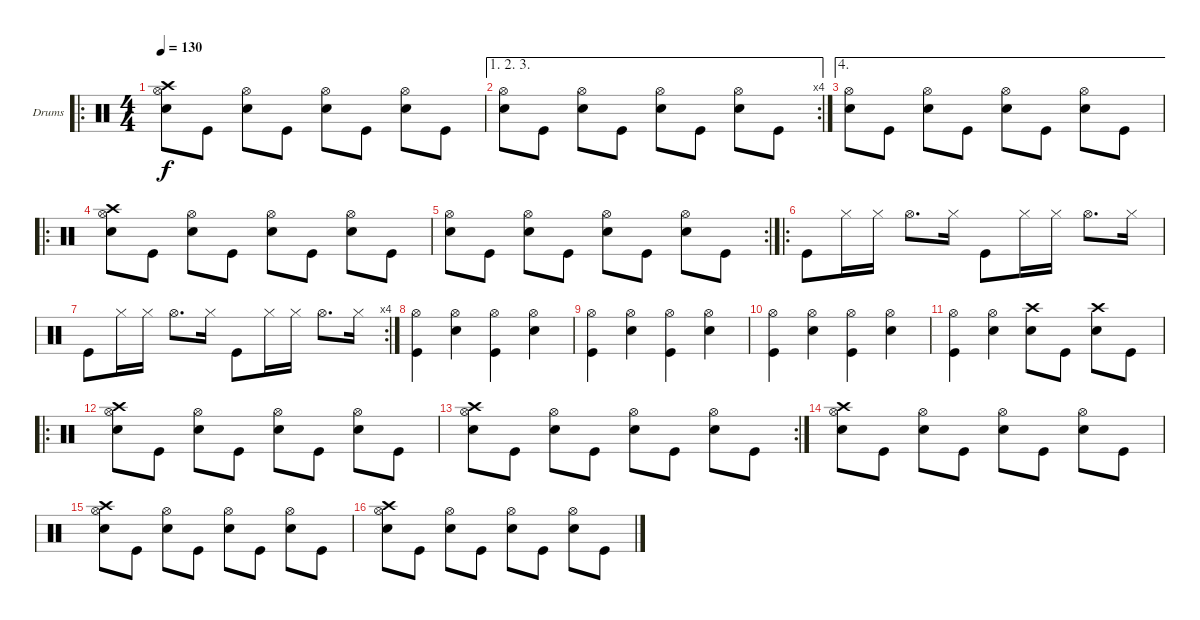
\bracketExtendMode groupsimilarinstruments
\firstSystemTrackNameOrientation horizontal
\otherSystemsTrackNameOrientation horizontal
\track ("Drumkit" "Drums") {instrument percussion}
\staff {score}
\articulation defaults
\ro
\ts (4 4)
\tempo 130
\clef neutral
\ks c
("Snare (hit) 2" "Hi-Hat (open)" "Crash high (hit)").8{dy f} "Kick (hit)".8 ("Snare (hit) 2" "Hi-Hat (open)").8 "Kick (hit)".8 ("Snare (hit) 2" "Hi-Hat (open)").8 "Kick (hit)".8 ("Snare (hit) 2" "Hi-Hat (open)").8 "Kick (hit)".8 |
\ae (1 2 3)
\rc 4
("Snare (hit) 2" "Hi-Hat (open)").8 "Kick (hit)".8 ("Snare (hit) 2" "Hi-Hat (open)").8 "Kick (hit)".8 ("Snare (hit) 2" "Hi-Hat (open)").8 "Kick (hit)".8 ("Snare (hit) 2" "Hi-Hat (open)").8 "Kick (hit)".8 |
\ae 4
("Snare (hit) 2" "Hi-Hat (open)").8 "Kick (hit)".8 ("Snare (hit) 2" "Hi-Hat (open)").8 "Kick (hit)".8 ("Snare (hit) 2" "Hi-Hat (open)").8 "Kick (hit)".8 ("Snare (hit) 2" "Hi-Hat (open)").8 "Kick (hit)".8 |
\ro
("Snare (hit) 2" "Hi-Hat (open)" "Crash high (hit)").8 "Kick (hit)".8 ("Snare (hit) 2" "Hi-Hat (open)").8 "Kick (hit)".8 ("Snare (hit) 2" "Hi-Hat (open)").8 "Kick (hit)".8 ("Snare (hit) 2" "Hi-Hat (open)").8 "Kick (hit)".8 |
\rc 2
("Snare (hit) 2" "Hi-Hat (open)").8 "Kick (hit)".8 ("Snare (hit) 2" "Hi-Hat (open)").8 "Kick (hit)".8 ("Snare (hit) 2" "Hi-Hat (open)").8 "Kick (hit)".8 ("Snare (hit) 2" "Hi-Hat (open)").8 "Kick (hit)".8 |
\ro "Kick (hit)".8 "Hi-Hat (closed)".16 "Hi-Hat (closed)".16 "Hi-Hat (open)".8{d} "Hi-Hat (closed)".16 "Kick (hit)".8 "Hi-Hat (closed)".16 "Hi-Hat (closed)".16 "Hi-Hat (open)".8{d} "Hi-Hat (closed)".16
|
\rc 4 "Kick (hit)".8 "Hi-Hat (closed)".16 "Hi-Hat (closed)".16 "Hi-Hat (open)".8{d} "Hi-Hat (closed)".16 "Kick (hit)".8 "Hi-Hat (closed)".16 "Hi-Hat (closed)".16 "Hi-Hat (open)".8{d} "Hi-Hat (closed)".16
|
("Kick (hit)" "Hi-Hat (open)").4 ("Snare (hit) 2" "Hi-Hat (open)").4 ("Kick (hit)" "Hi-Hat (open)").4 ("Snare (hit) 2" "Hi-Hat (open)").4 |
("Kick (hit)" "Hi-Hat (open)").4 ("Snare (hit) 2" "Hi-Hat (open)").4 ("Kick (hit)" "Hi-Hat (open)").4 ("Snare (hit) 2" "Hi-Hat (open)").4 |
("Kick (hit)" "Hi-Hat (open)").4 ("Snare (hit) 2" "Hi-Hat (open)").4 ("Kick (hit)" "Hi-Hat (open)").4 ("Snare (hit) 2" "Hi-Hat (open)").4 |
("Kick (hit)" "Hi-Hat (open)").4 ("Snare (hit) 2" "Hi-Hat (open)").4 ("Snare (hit) 2" "Crash high (hit)").8 "Kick (hit)".8 ("Snare (hit) 2" "Crash high (hit)").8 "Kick (hit)".8 |
\ro
("Snare (hit) 2" "Hi-Hat (open)" "Crash high (hit)").8 "Kick (hit)".8 ("Snare (hit) 2" "Hi-Hat (open)").8 "Kick (hit)".8 ("Snare (hit) 2" "Hi-Hat (open)").8 "Kick (hit)".8 ("Snare (hit) 2" "Hi-Hat (open)").8 "Kick (hit)".8 |
\rc 2
("Snare (hit) 2" "Hi-Hat (open)" "Crash high (hit)").8 "Kick (hit)".8 ("Snare (hit) 2" "Hi-Hat (open)").8 "Kick (hit)".8 ("Snare (hit) 2" "Hi-Hat (open)").8 "Kick (hit)".8 ("Snare (hit) 2" "Hi-Hat (open)").8 "Kick (hit)".8 |
("Snare (hit) 2" "Hi-Hat (open)" "Crash high (hit)").8 "Kick (hit)".8 ("Snare (hit) 2" "Hi-Hat (open)").8 "Kick (hit)".8 ("Snare (hit) 2" "Hi-Hat (open)").8 "Kick (hit)".8 ("Snare (hit) 2" "Hi-Hat (open)").8 "Kick (hit)".8 |
("Snare (hit) 2" "Hi-Hat (open)" "Crash high (hit)").8 "Kick (hit)".8 ("Snare (hit) 2" "Hi-Hat (open)").8 "Kick (hit)".8 ("Snare (hit) 2" "Hi-Hat (open)").8 "Kick (hit)".8 ("Snare (hit) 2" "Hi-Hat (open)").8 "Kick (hit)".8 |
("Snare (hit) 2" "Hi-Hat (open)" "Crash high (hit)").8 "Kick (hit)".8 ("Snare (hit) 2" "Hi-Hat (open)").8 "Kick (hit)".8 ("Snare (hit) 2" "Hi-Hat (open)").8 "Kick (hit)".8 ("Snare (hit) 2" "Hi-Hat (open)").8 "Kick (hit)".8
